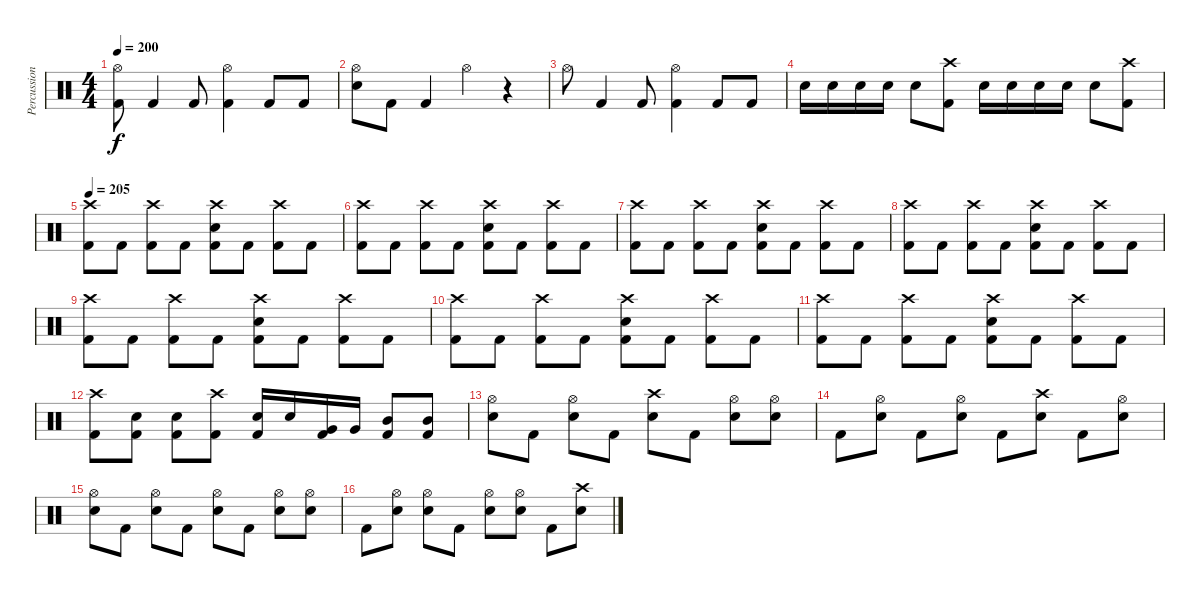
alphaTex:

\track ("Percussion" "Percussion") {instrument percussion}
\staff {score}
\articulation defaults
\ts (4 4)
\tempo 200
\clef neutral
\ks c
("Hi-Hat (open)" "Kick (hit) 2").8{dy f} "Kick (hit) 2".4 "Kick (hit) 2".8 ("Hi-Hat (open)" "Kick (hit) 2").4 "Kick (hit) 2".8 "Kick (hit) 2".8 |
("Hi-Hat (open)" "Electric Snare (hit)").8 "Kick (hit) 2".8 "Kick (hit) 2".4 "Hi-Hat (open)".4 r.4 |
"Hi-Hat (open)".8 "Kick (hit) 2".4 "Kick (hit) 2".8 ("Hi-Hat (open)" "Kick (hit) 2").4 "Kick (hit) 2".8 "Kick (hit) 2".8 |
"Electric Snare (hit)".16 "Electric Snare (hit)".16 "Electric Snare (hit)".16 "Electric Snare (hit)".16 "Electric Snare (hit)".8 ("Crash high (hit)" "Kick (hit) 2").8 "Electric Snare (hit)".16 "Electric Snare (hit)".16 "Electric Snare (hit)".16 "Electric Snare (hit)".16 "Electric Snare (hit)".8 ("Crash high (hit)" "Kick (hit) 2").8 |
\tempo 205
("Crash high (hit)" "Kick (hit) 2").8 "Kick (hit) 2".8 ("Crash high (hit)" "Kick (hit) 2").8 "Kick (hit) 2".8 ("Crash high (hit)" "Electric Snare (hit)" "Kick (hit) 2").8 "Kick (hit) 2".8 ("Crash high (hit)" "Kick (hit) 2").8 "Kick (hit) 2".8 |
("Crash high (hit)" "Kick (hit) 2").8 "Kick (hit) 2".8 ("Crash high (hit)" "Kick (hit) 2").8 "Kick (hit) 2".8 ("Crash high (hit)" "Electric Snare (hit)" "Kick (hit) 2").8 "Kick (hit) 2".8 ("Crash high (hit)" "Kick (hit) 2").8 "Kick (hit) 2".8 |
("Crash high (hit)" "Kick (hit) 2").8 "Kick (hit) 2".8 ("Crash high (hit)" "Kick (hit) 2").8 "Kick (hit) 2".8 ("Crash high (hit)" "Electric Snare (hit)" "Kick (hit) 2").8 "Kick (hit) 2".8 ("Crash high (hit)" "Kick (hit) 2").8 "Kick (hit) 2".8 |
("Crash high (hit)" "Kick (hit) 2").8 "Kick (hit) 2".8 ("Crash high (hit)" "Kick (hit) 2").8 "Kick (hit) 2".8 ("Crash high (hit)" "Electric Snare (hit)" "Kick (hit) 2").8 "Kick (hit) 2".8 ("Crash high (hit)" "Kick (hit) 2").8 "Kick (hit) 2".8 |
("Crash high (hit)" "Kick (hit) 2").8 "Kick (hit) 2".8 ("Crash high (hit)" "Kick (hit) 2").8 "Kick (hit) 2".8 ("Crash high (hit)" "Electric Snare (hit)" "Kick (hit) 2").8 "Kick (hit) 2".8 ("Crash high (hit)" "Kick (hit) 2").8 "Kick (hit) 2".8 |
("Crash high (hit)" "Kick (hit) 2").8 "Kick (hit) 2".8 ("Crash high (hit)" "Kick (hit) 2").8 "Kick (hit) 2".8 ("Crash high (hit)" "Electric Snare (hit)" "Kick (hit) 2").8 "Kick (hit) 2".8 ("Crash high (hit)" "Kick (hit) 2").8 "Kick (hit) 2".8 |
("Crash high (hit)" "Kick (hit) 2").8 "Kick (hit) 2".8 ("Crash high (hit)" "Kick (hit) 2").8 "Kick (hit) 2".8 ("Crash high (hit)" "Electric Snare (hit)" "Kick (hit) 2").8 "Kick (hit) 2".8 ("Crash high (hit)" "Kick (hit) 2").8 "Kick (hit) 2".8 |
("Crash high (hit)" "Kick (hit) 2").8 ("Electric Snare (hit)" "Kick (hit) 2").8 ("Electric Snare (hit)" "Kick (hit) 2").8 ("Crash high (hit)" "Kick (hit) 2").8 ("Electric Snare (hit)" "Kick (hit) 2").16 "Electric Snare (hit)".16 ("Very Low Tom (hit)" "Kick (hit) 2").16 "Very Low Tom (hit)".16 ("Mid Tom (hit)" "Kick (hit) 2").8 ("Mid Tom (hit)" "Kick (hit) 2").8 |
("Hi-Hat (open)" "Electric Snare (hit)").8 "Kick (hit) 2".8 ("Hi-Hat (open)" "Electric Snare (hit)").8 "Kick (hit) 2".8 ("Crash high (hit)" "Electric Snare (hit)").8 "Kick (hit) 2".8 ("Hi-Hat (open)" "Electric Snare (hit)").8 ("Hi-Hat (open)" "Electric Snare (hit)").8 |
"Kick (hit) 2".8 ("Hi-Hat (open)" "Electric Snare (hit)").8 "Kick (hit) 2".8 ("Hi-Hat (open)" "Electric Snare (hit)").8 "Kick (hit) 2".8 ("Crash high (hit)" "Electric Snare (hit)").8 "Kick (hit) 2".8 ("Hi-Hat (open)" "Electric Snare (hit)").8 |
("Hi-Hat (open)" "Electric Snare (hit)").8 "Kick (hit) 2".8 ("Hi-Hat (open)" "Electric Snare (hit)").8 "Kick (hit) 2".8 ("Hi-Hat (open)" "Electric Snare (hit)").8 "Kick (hit) 2".8 ("Hi-Hat (open)" "Electric Snare (hit)").8 ("Hi-Hat (open)" "Electric Snare (hit)").8 |
"Kick (hit) 2".8 ("Hi-Hat (open)" "Electric Snare (hit)").8 ("Hi-Hat (open)" "Electric Snare (hit)").8 "Kick (hit) 2".8 ("Hi-Hat (open)" "Electric Snare (hit)").8 ("Hi-Hat (open)" "Electric Snare (hit)").8 "Kick (hit) 2".8 ("Crash high (hit)" "Electric Snare (hit)").8
